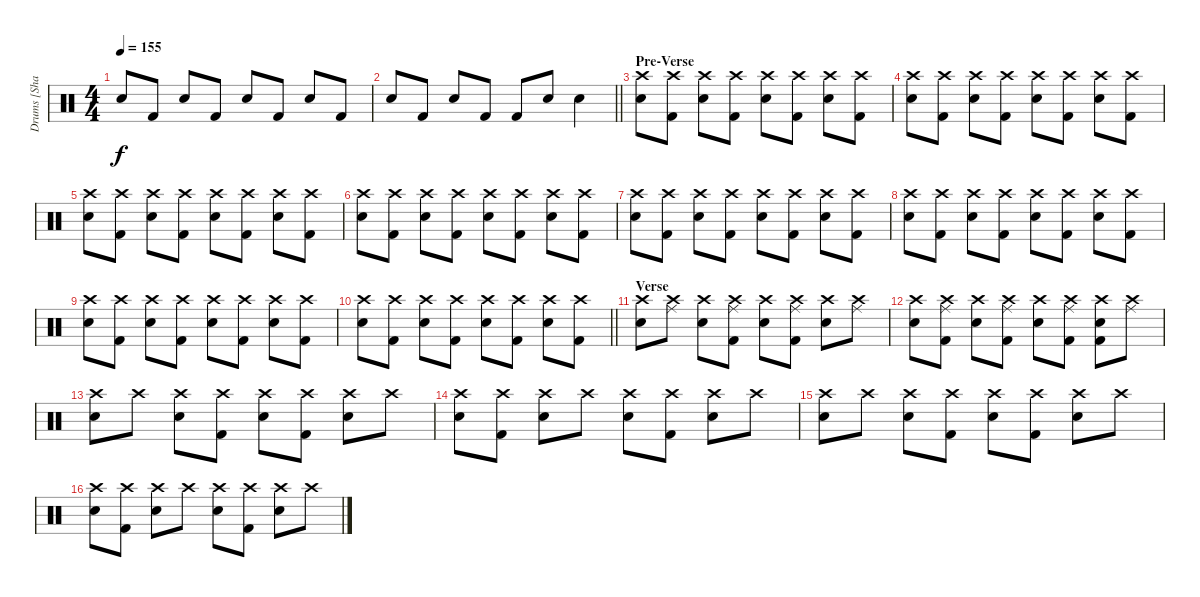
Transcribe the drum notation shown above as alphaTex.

\track ("Drums [Shannon Larkin]" "Drums [Sha") {instrument percussion}
\staff {score}
\articulation defaults
\ts (4 4)
\tempo 155
\clef neutral
\ks c "Electric Snare (hit)".8{dy f} "Kick (hit) 2".8 "Electric Snare (hit)".8 "Kick (hit) 2".8 "Electric Snare (hit)".8 "Kick (hit) 2".8 "Electric Snare (hit)".8 "Kick (hit) 2".8
|
\barLineRight lightlight "Electric Snare (hit)".8 "Kick (hit) 2".8 "Electric Snare (hit)".8 "Kick (hit) 2".8 "Kick (hit) 2".8 "Electric Snare (hit)".8 "Electric Snare (hit)".4
|
\section ("" "Pre-Verse")
("Crash high (hit)" "Electric Snare (hit)").8 ("Crash high (hit)" "Kick (hit) 2").8 ("Crash high (hit)" "Electric Snare (hit)").8 ("Crash high (hit)" "Kick (hit) 2").8 ("Crash high (hit)" "Electric Snare (hit)").8 ("Crash high (hit)" "Kick (hit) 2").8 ("Crash high (hit)" "Electric Snare (hit)").8 ("Crash high (hit)" "Kick (hit) 2").8 |
("Crash high (hit)" "Electric Snare (hit)").8 ("Crash high (hit)" "Kick (hit) 2").8 ("Crash high (hit)" "Electric Snare (hit)").8 ("Crash high (hit)" "Kick (hit) 2").8 ("Crash high (hit)" "Electric Snare (hit)").8 ("Crash high (hit)" "Kick (hit) 2").8 ("Crash high (hit)" "Electric Snare (hit)").8 ("Crash high (hit)" "Kick (hit) 2").8 |
("Crash high (hit)" "Electric Snare (hit)").8 ("Crash high (hit)" "Kick (hit) 2").8 ("Crash high (hit)" "Electric Snare (hit)").8 ("Crash high (hit)" "Kick (hit) 2").8 ("Crash high (hit)" "Electric Snare (hit)").8 ("Crash high (hit)" "Kick (hit) 2").8 ("Crash high (hit)" "Electric Snare (hit)").8 ("Crash high (hit)" "Kick (hit) 2").8 |
("Crash high (hit)" "Electric Snare (hit)").8 ("Crash high (hit)" "Kick (hit) 2").8 ("Crash high (hit)" "Electric Snare (hit)").8 ("Crash high (hit)" "Kick (hit) 2").8 ("Crash high (hit)" "Electric Snare (hit)").8 ("Crash high (hit)" "Kick (hit) 2").8 ("Crash high (hit)" "Electric Snare (hit)").8 ("Crash high (hit)" "Kick (hit) 2").8 |
("Crash high (hit)" "Electric Snare (hit)").8 ("Crash high (hit)" "Kick (hit) 2").8 ("Crash high (hit)" "Electric Snare (hit)").8 ("Crash high (hit)" "Kick (hit) 2").8 ("Crash high (hit)" "Electric Snare (hit)").8 ("Crash high (hit)" "Kick (hit) 2").8 ("Crash high (hit)" "Electric Snare (hit)").8 ("Crash high (hit)" "Kick (hit) 2").8 |
("Crash high (hit)" "Electric Snare (hit)").8 ("Crash high (hit)" "Kick (hit) 2").8 ("Crash high (hit)" "Electric Snare (hit)").8 ("Crash high (hit)" "Kick (hit) 2").8 ("Crash high (hit)" "Electric Snare (hit)").8 ("Crash high (hit)" "Kick (hit) 2").8 ("Crash high (hit)" "Electric Snare (hit)").8 ("Crash high (hit)" "Kick (hit) 2").8 |
("Crash high (hit)" "Electric Snare (hit)").8 ("Crash high (hit)" "Kick (hit) 2").8 ("Crash high (hit)" "Electric Snare (hit)").8 ("Crash high (hit)" "Kick (hit) 2").8 ("Crash high (hit)" "Electric Snare (hit)").8 ("Crash high (hit)" "Kick (hit) 2").8 ("Crash high (hit)" "Electric Snare (hit)").8 ("Crash high (hit)" "Kick (hit) 2").8 |
\barLineRight lightlight
("Crash high (hit)" "Electric Snare (hit)").8 ("Crash high (hit)" "Kick (hit) 2").8 ("Crash high (hit)" "Electric Snare (hit)").8 ("Crash high (hit)" "Kick (hit) 2").8 ("Crash high (hit)" "Electric Snare (hit)").8 ("Crash high (hit)" "Kick (hit) 2").8 ("Crash high (hit)" "Electric Snare (hit)").8 ("Crash high (hit)" "Kick (hit) 2").8 |
\section ("" "Verse")
("Crash high (hit)" "Electric Snare (hit)").8 ("Crash high (hit)" "Ride (middle)").8 ("Crash high (hit)" "Electric Snare (hit)").8 ("Crash high (hit)" "Ride (middle)" "Kick (hit) 2").8 ("Crash high (hit)" "Electric Snare (hit)").8 ("Crash high (hit)" "Ride (middle)" "Kick (hit) 2").8 ("Crash high (hit)" "Electric Snare (hit)").8 ("Crash high (hit)" "Ride (middle)").8 |
("Crash high (hit)" "Electric Snare (hit)").8 ("Crash high (hit)" "Ride (middle)" "Kick (hit) 2").8 ("Crash high (hit)" "Electric Snare (hit)").8 ("Crash high (hit)" "Ride (middle)" "Kick (hit) 2").8 ("Crash high (hit)" "Electric Snare (hit)").8 ("Crash high (hit)" "Ride (middle)" "Kick (hit) 2").8 ("Crash high (hit)" "Electric Snare (hit)" "Kick (hit) 2").8 ("Crash high (hit)" "Ride (middle)").8 |
("Crash high (hit)" "Electric Snare (hit)").8 "Crash high (hit)".8 ("Crash high (hit)" "Electric Snare (hit)").8 ("Crash high (hit)" "Kick (hit) 2").8 ("Crash high (hit)" "Electric Snare (hit)").8 ("Crash high (hit)" "Kick (hit) 2").8 ("Crash high (hit)" "Electric Snare (hit)").8 "Crash high (hit)".8 |
("Crash high (hit)" "Electric Snare (hit)").8 ("Crash high (hit)" "Kick (hit) 2").8 ("Crash high (hit)" "Electric Snare (hit)").8 "Crash high (hit)".8 ("Crash high (hit)" "Electric Snare (hit)").8 ("Crash high (hit)" "Kick (hit) 2").8 ("Crash high (hit)" "Electric Snare (hit)").8 "Crash high (hit)".8 |
("Crash high (hit)" "Electric Snare (hit)").8 "Crash high (hit)".8 ("Crash high (hit)" "Electric Snare (hit)").8 ("Crash high (hit)" "Kick (hit) 2").8 ("Crash high (hit)" "Electric Snare (hit)").8 ("Crash high (hit)" "Kick (hit) 2").8 ("Crash high (hit)" "Electric Snare (hit)").8 "Crash high (hit)".8 |
("Crash high (hit)" "Electric Snare (hit)").8 ("Crash high (hit)" "Kick (hit) 2").8 ("Crash high (hit)" "Electric Snare (hit)").8 "Crash high (hit)".8 ("Crash high (hit)" "Electric Snare (hit)").8 ("Crash high (hit)" "Kick (hit) 2").8 ("Crash high (hit)" "Electric Snare (hit)").8 "Crash high (hit)".8
